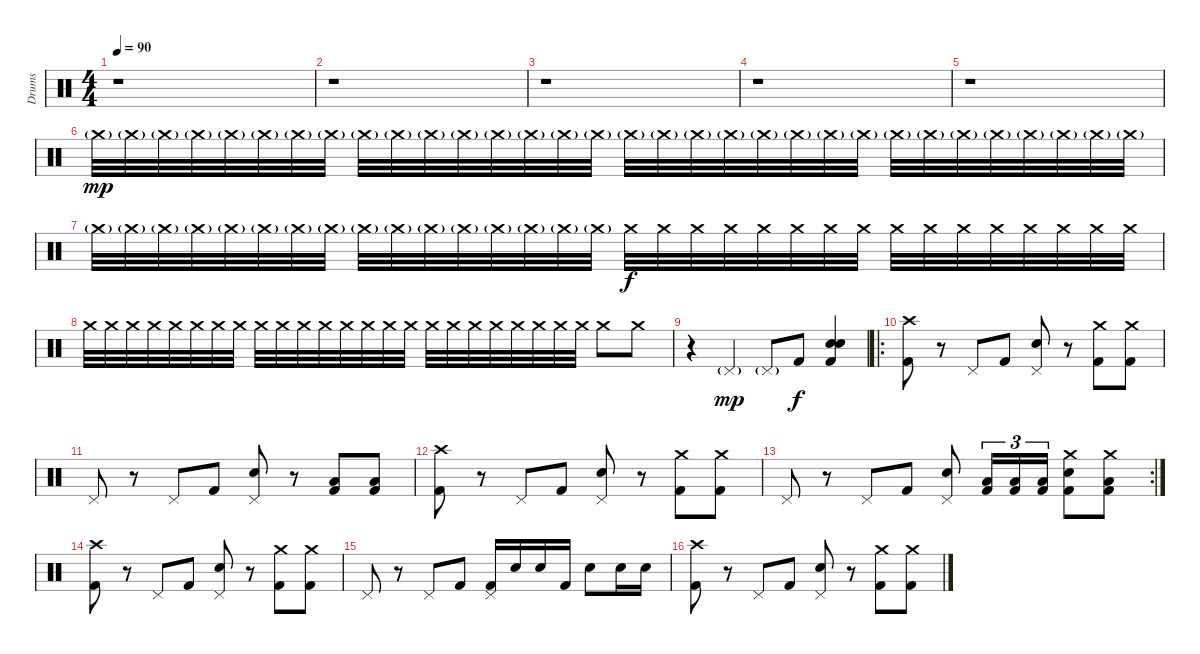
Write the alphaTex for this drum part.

\track ("Drums" "Drums") {instrument percussion}
\staff {score}
\articulation defaults
\ts (4 4)
\tempo 90
\clef neutral
\ks c
r.1{dy mp} |
r.1 |
r.1 |
r.1 |
r.1 |
"Crash medium (hit)"{g}.32 "Crash medium (hit)"{g}.32 "Crash medium (hit)"{g}.32 "Crash medium (hit)"{g}.32 "Crash medium (hit)"{g}.32 "Crash medium (hit)"{g}.32 "Crash medium (hit)"{g}.32 "Crash medium (hit)"{g}.32 "Crash medium (hit)"{g}.32 "Crash medium (hit)"{g}.32 "Crash medium (hit)"{g}.32 "Crash medium (hit)"{g}.32 "Crash medium (hit)"{g}.32 "Crash medium (hit)"{g}.32 "Crash medium (hit)"{g}.32 "Crash medium (hit)"{g}.32 "Crash medium (hit)"{g}.32 "Crash medium (hit)"{g}.32 "Crash medium (hit)"{g}.32 "Crash medium (hit)"{g}.32 "Crash medium (hit)"{g}.32 "Crash medium (hit)"{g}.32 "Crash medium (hit)"{g}.32 "Crash medium (hit)"{g}.32 "Crash medium (hit)"{g}.32 "Crash medium (hit)"{g}.32 "Crash medium (hit)"{g}.32 "Crash medium (hit)"{g}.32 "Crash medium (hit)"{g}.32 "Crash medium (hit)"{g}.32 "Crash medium (hit)"{g}.32 "Crash medium (hit)"{g}.32 |
"Crash medium (hit)"{g}.32 "Crash medium (hit)"{g}.32 "Crash medium (hit)"{g}.32 "Crash medium (hit)"{g}.32 "Crash medium (hit)"{g}.32 "Crash medium (hit)"{g}.32 "Crash medium (hit)"{g}.32 "Crash medium (hit)"{g}.32 "Crash medium (hit)"{g}.32 "Crash medium (hit)"{g}.32 "Crash medium (hit)"{g}.32 "Crash medium (hit)"{g}.32 "Crash medium (hit)"{g}.32 "Crash medium (hit)"{g}.32 "Crash medium (hit)"{g}.32 "Crash medium (hit)"{g}.32 "Crash medium (hit)".32{dy f} "Crash medium (hit)".32 "Crash medium (hit)".32 "Crash medium (hit)".32 "Crash medium (hit)".32 "Crash medium (hit)".32 "Crash medium (hit)".32 "Crash medium (hit)".32 "Crash medium (hit)".32 "Crash medium (hit)".32 "Crash medium (hit)".32 "Crash medium (hit)".32 "Crash medium (hit)".32 "Crash medium (hit)".32 "Crash medium (hit)".32 "Crash medium (hit)".32 |
"Crash medium (hit)".32 "Crash medium (hit)".32 "Crash medium (hit)".32 "Crash medium (hit)".32 "Crash medium (hit)".32 "Crash medium (hit)".32 "Crash medium (hit)".32 "Crash medium (hit)".32 "Crash medium (hit)".32 "Crash medium (hit)".32 "Crash medium (hit)".32 "Crash medium (hit)".32 "Crash medium (hit)".32 "Crash medium (hit)".32 "Crash medium (hit)".32 "Crash medium (hit)".32 "Crash medium (hit)".32 "Crash medium (hit)".32 "Crash medium (hit)".32 "Crash medium (hit)".32 "Crash medium (hit)".32 "Crash medium (hit)".32 "Crash medium (hit)".32 "Crash medium (hit)".32 "Crash medium (hit)".8 "Crash medium (hit)".8 |
r.4 "Pedal Hi-Hat (hit)"{g}.4{dy mp} "Pedal Hi-Hat (hit)"{g}.8 "Kick (hit) 2".8{dy f} ("Electric Snare (hit)" "Electric Snare (hit)" "Kick (hit) 2").4 |
\ro
("Crash high (hit)" "Kick (hit) 2").8 r.8 "Pedal Hi-Hat (hit)".8 "Kick (hit) 2".8 ("Pedal Hi-Hat (hit)" "Electric Snare (hit)").8 r.8 ("Crash medium (hit)" "Kick (hit) 2").8 ("Crash medium (hit)" "Kick (hit) 2").8 |
"Pedal Hi-Hat (hit)".8 r.8 "Pedal Hi-Hat (hit)".8 "Kick (hit) 2".8 ("Pedal Hi-Hat (hit)" "Electric Snare (hit)").8 r.8 ("Low Tom (hit)" "Kick (hit) 2").8 ("Low Tom (hit)" "Kick (hit) 2").8 |
("Crash high (hit)" "Kick (hit) 2").8 r.8 "Pedal Hi-Hat (hit)".8 "Kick (hit) 2".8 ("Pedal Hi-Hat (hit)" "Electric Snare (hit)").8 r.8 ("Crash medium (hit)" "Kick (hit) 2").8 ("Crash medium (hit)" "Kick (hit) 2").8 |
\rc 2 "Pedal Hi-Hat (hit)".8
r.8 "Pedal Hi-Hat (hit)".8 "Kick (hit) 2".8 ("Pedal Hi-Hat (hit)" "Electric Snare (hit)").8 ("Low Tom (hit)" "Kick (hit) 2").16{tu (3 2)} ("Low Tom (hit)" "Kick (hit) 2").16{tu (3 2)} ("Low Tom (hit)" "Kick (hit) 2").16{tu (3 2)} ("Crash medium (hit)" "Electric Snare (hit)" "Kick (hit) 2").8 ("Crash medium (hit)" "Low Tom (hit)" "Kick (hit) 2").8 |
("Crash high (hit)" "Kick (hit) 2").8 r.8 "Pedal Hi-Hat (hit)".8 "Kick (hit) 2".8 ("Pedal Hi-Hat (hit)" "Electric Snare (hit)").8 r.8 ("Crash medium (hit)" "Kick (hit) 2").8 ("Crash medium (hit)" "Kick (hit) 2").8 |
"Pedal Hi-Hat (hit)".8 r.8 "Pedal Hi-Hat (hit)".8 "Kick (hit) 2".8 ("Pedal Hi-Hat (hit)" "Kick (hit) 2").16 "Electric Snare (hit)".16 "Electric Snare (hit)".16 "Kick (hit) 2".16 "Electric Snare (hit)".8 "Electric Snare (hit)".16 "Electric Snare (hit)".16 |
("Crash high (hit)" "Kick (hit) 2").8 r.8 "Pedal Hi-Hat (hit)".8 "Kick (hit) 2".8 ("Pedal Hi-Hat (hit)" "Electric Snare (hit)").8 r.8 ("Crash medium (hit)" "Kick (hit) 2").8 ("Crash medium (hit)" "Kick (hit) 2").8
